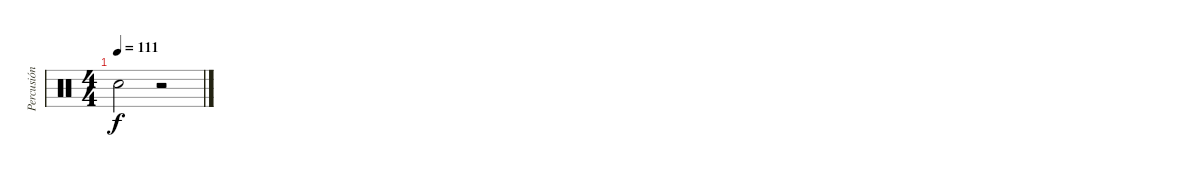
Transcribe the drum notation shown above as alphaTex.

\track ("Percusión" "Percusión") {instrument percussion}
\staff {score}
\articulation defaults
\ts (4 4)
\tempo 111
\clef neutral
\ks c "Snare (hit)"{t}.2{dy f}
r.2
